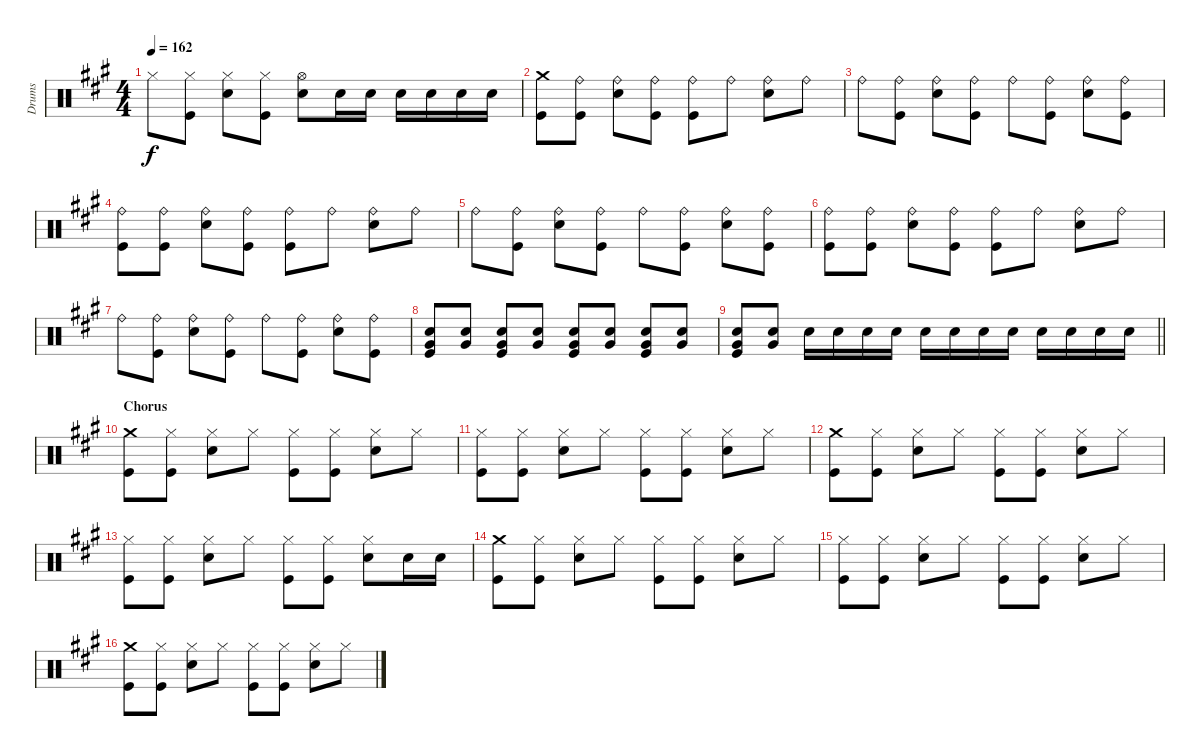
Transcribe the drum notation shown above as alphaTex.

\track ("Drums" "Drums") {instrument percussion}
\staff {score}
\articulation defaults
\ts (4 4)
\tempo 162
\clef neutral
\ks a "Hi-Hat (closed)".8{dy f}
("Kick (hit)" "Hi-Hat (closed)").8 ("Hi-Hat (closed)" "Snare (hit) 2").8 ("Kick (hit)" "Hi-Hat (closed)").8 ("Snare (hit) 2" "Hi-Hat (open)").8 "Snare (hit) 2".16 "Snare (hit) 2".16 "Snare (hit) 2".16 "Snare (hit) 2".16 "Snare (hit) 2".16 "Snare (hit) 2".16 |
("Crash medium (hit)" "Kick (hit)").8 ("Ride (bell)" "Kick (hit)").8 ("Ride (bell)" "Snare (hit) 2").8 ("Ride (bell)" "Kick (hit)").8 ("Ride (bell)" "Kick (hit)").8 "Ride (bell)".8 ("Ride (bell)" "Snare (hit) 2").8 "Ride (bell)".8 |
"Ride (bell)".8 ("Ride (bell)" "Kick (hit)").8 ("Ride (bell)" "Snare (hit) 2").8 ("Ride (bell)" "Kick (hit)").8 "Ride (bell)".8 ("Ride (bell)" "Kick (hit)").8 ("Ride (bell)" "Snare (hit) 2").8 ("Ride (bell)" "Kick (hit)").8 |
("Kick (hit)" "Ride (bell)").8 ("Ride (bell)" "Kick (hit)").8 ("Ride (bell)" "Snare (hit) 2").8 ("Ride (bell)" "Kick (hit)").8 ("Ride (bell)" "Kick (hit)").8 "Ride (bell)".8 ("Ride (bell)" "Snare (hit) 2").8 "Ride (bell)".8 |
"Ride (bell)".8 ("Ride (bell)" "Kick (hit)").8 ("Ride (bell)" "Snare (hit) 2").8 ("Ride (bell)" "Kick (hit)").8 "Ride (bell)".8 ("Ride (bell)" "Kick (hit)").8 ("Ride (bell)" "Snare (hit) 2").8 ("Ride (bell)" "Kick (hit)").8 |
("Kick (hit)" "Ride (bell)").8 ("Ride (bell)" "Kick (hit)").8 ("Ride (bell)" "Snare (hit) 2").8 ("Ride (bell)" "Kick (hit)").8 ("Ride (bell)" "Kick (hit)").8 "Ride (bell)".8 ("Ride (bell)" "Snare (hit) 2").8 "Ride (bell)".8 |
"Ride (bell)".8 ("Ride (bell)" "Kick (hit)").8 ("Ride (bell)" "Snare (hit) 2").8 ("Ride (bell)" "Kick (hit)").8 "Ride (bell)".8 ("Ride (bell)" "Kick (hit)").8 ("Ride (bell)" "Snare (hit) 2").8 ("Ride (bell)" "Kick (hit)").8 |
("Kick (hit)" "Very Low Tom (hit)" "Snare (hit) 2").8 ("Snare (hit) 2" "Very Low Tom (hit)").8 ("Kick (hit)" "Very Low Tom (hit)" "Snare (hit) 2").8 ("Snare (hit) 2" "Very Low Tom (hit)").8 ("Kick (hit)" "Very Low Tom (hit)" "Snare (hit) 2").8 ("Snare (hit) 2" "Very Low Tom (hit)").8 ("Kick (hit)" "Very Low Tom (hit)" "Snare (hit) 2").8 ("Snare (hit) 2" "Very Low Tom (hit)").8 |
\barLineRight lightlight
("Kick (hit)" "Very Low Tom (hit)" "Snare (hit) 2").8 ("Snare (hit) 2" "Very Low Tom (hit)").8 "Snare (hit) 2".16 "Snare (hit) 2".16 "Snare (hit) 2".16 "Snare (hit) 2".16 "Snare (hit) 2".16 "Snare (hit) 2".16 "Snare (hit) 2".16 "Snare (hit) 2".16 "Snare (hit) 2".16 "Snare (hit) 2".16 "Snare (hit) 2".16 "Snare (hit) 2".16 |
\section ("" "Chorus")
("Kick (hit)" "Crash medium (hit)").8 ("Kick (hit)" "Hi-Hat (closed)").8 ("Snare (hit) 2" "Hi-Hat (closed)").8 "Hi-Hat (closed)".8 ("Kick (hit)" "Hi-Hat (closed)").8 ("Kick (hit)" "Hi-Hat (closed)").8 ("Snare (hit) 2" "Hi-Hat (closed)").8 "Hi-Hat (closed)".8 |
("Kick (hit)" "Hi-Hat (closed)").8 ("Kick (hit)" "Hi-Hat (closed)").8 ("Snare (hit) 2" "Hi-Hat (closed)").8 "Hi-Hat (closed)".8 ("Kick (hit)" "Hi-Hat (closed)").8 ("Kick (hit)" "Hi-Hat (closed)").8 ("Snare (hit) 2" "Hi-Hat (closed)").8 "Hi-Hat (closed)".8 |
("Kick (hit)" "Crash medium (hit)").8 ("Kick (hit)" "Hi-Hat (closed)").8 ("Snare (hit) 2" "Hi-Hat (closed)").8 "Hi-Hat (closed)".8 ("Kick (hit)" "Hi-Hat (closed)").8 ("Kick (hit)" "Hi-Hat (closed)").8 ("Snare (hit) 2" "Hi-Hat (closed)").8 "Hi-Hat (closed)".8 |
("Kick (hit)" "Hi-Hat (closed)").8 ("Kick (hit)" "Hi-Hat (closed)").8 ("Snare (hit) 2" "Hi-Hat (closed)").8 "Hi-Hat (closed)".8 ("Kick (hit)" "Hi-Hat (closed)").8 ("Kick (hit)" "Hi-Hat (closed)").8 ("Snare (hit) 2" "Hi-Hat (closed)").8 "Snare (hit) 2".16 "Snare (hit) 2".16 |
("Kick (hit)" "Crash medium (hit)").8 ("Kick (hit)" "Hi-Hat (closed)").8 ("Snare (hit) 2" "Hi-Hat (closed)").8 "Hi-Hat (closed)".8 ("Kick (hit)" "Hi-Hat (closed)").8 ("Kick (hit)" "Hi-Hat (closed)").8 ("Snare (hit) 2" "Hi-Hat (closed)").8 "Hi-Hat (closed)".8 |
("Kick (hit)" "Hi-Hat (closed)").8 ("Kick (hit)" "Hi-Hat (closed)").8 ("Snare (hit) 2" "Hi-Hat (closed)").8 "Hi-Hat (closed)".8 ("Kick (hit)" "Hi-Hat (closed)").8 ("Kick (hit)" "Hi-Hat (closed)").8 ("Snare (hit) 2" "Hi-Hat (closed)").8 "Hi-Hat (closed)".8 |
("Kick (hit)" "Crash medium (hit)").8 ("Kick (hit)" "Hi-Hat (closed)").8 ("Snare (hit) 2" "Hi-Hat (closed)").8 "Hi-Hat (closed)".8 ("Kick (hit)" "Hi-Hat (closed)").8 ("Kick (hit)" "Hi-Hat (closed)").8 ("Snare (hit) 2" "Hi-Hat (closed)").8 "Hi-Hat (closed)".8
